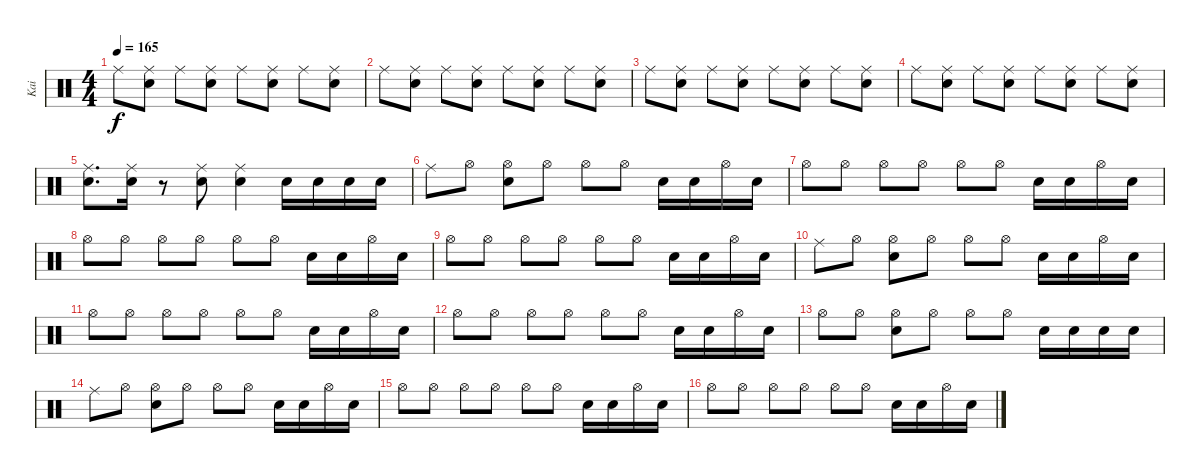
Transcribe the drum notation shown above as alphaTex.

\track ("Kai" "Kai") {instrument percussion}
\staff {score}
\articulation defaults
\ts (4 4)
\tempo 165
\clef neutral
\ks c "Ride (middle)".8{dy f}
("Ride (middle)" "Snare (hit) 2").8 "Ride (middle)".8 ("Ride (middle)" "Snare (hit) 2").8 "Ride (middle)".8 ("Ride (middle)" "Snare (hit) 2").8 "Ride (middle)".8 ("Ride (middle)" "Snare (hit) 2").8 |
"Ride (middle)".8 ("Ride (middle)" "Snare (hit) 2").8 "Ride (middle)".8 ("Ride (middle)" "Snare (hit) 2").8 "Ride (middle)".8 ("Ride (middle)" "Snare (hit) 2").8 "Ride (middle)".8 ("Ride (middle)" "Snare (hit) 2").8 |
"Ride (middle)".8 ("Ride (middle)" "Snare (hit) 2").8 "Ride (middle)".8 ("Ride (middle)" "Snare (hit) 2").8 "Ride (middle)".8 ("Ride (middle)" "Snare (hit) 2").8 "Ride (middle)".8 ("Ride (middle)" "Snare (hit) 2").8 |
"Ride (middle)".8 ("Ride (middle)" "Snare (hit) 2").8 "Ride (middle)".8 ("Ride (middle)" "Snare (hit) 2").8 "Ride (middle)".8 ("Ride (middle)" "Snare (hit) 2").8 "Ride (middle)".8 ("Ride (middle)" "Snare (hit) 2").8 |
("Ride (middle)" "Snare (hit) 2").8{d} ("Ride (middle)" "Snare (hit) 2").16 r.8 ("Ride (middle)" "Snare (hit) 2").8 ("Ride (middle)" "Snare (hit) 2").4 "Snare (hit) 2".16 "Snare (hit) 2".16 "Snare (hit) 2".16 "Snare (hit) 2".16 |
"Ride (middle)".8 "Hi-Hat (open)".8 ("Hi-Hat (open)" "Snare (hit) 2").8 "Hi-Hat (open)".8 "Hi-Hat (open)".8 "Hi-Hat (open)".8 "Snare (hit) 2".16 "Snare (hit) 2".16 "Hi-Hat (open)".16 "Snare (hit) 2".16 |
"Hi-Hat (open)".8 "Hi-Hat (open)".8 "Hi-Hat (open)".8 "Hi-Hat (open)".8 "Hi-Hat (open)".8 "Hi-Hat (open)".8 "Snare (hit) 2".16 "Snare (hit) 2".16 "Hi-Hat (open)".16 "Snare (hit) 2".16 |
"Hi-Hat (open)".8 "Hi-Hat (open)".8 "Hi-Hat (open)".8 "Hi-Hat (open)".8 "Hi-Hat (open)".8 "Hi-Hat (open)".8 "Snare (hit) 2".16 "Snare (hit) 2".16 "Hi-Hat (open)".16 "Snare (hit) 2".16 |
"Hi-Hat (open)".8 "Hi-Hat (open)".8 "Hi-Hat (open)".8 "Hi-Hat (open)".8 "Hi-Hat (open)".8 "Hi-Hat (open)".8 "Snare (hit) 2".16 "Snare (hit) 2".16 "Hi-Hat (open)".16 "Snare (hit) 2".16 |
"Ride (middle)".8 "Hi-Hat (open)".8 ("Hi-Hat (open)" "Snare (hit) 2").8 "Hi-Hat (open)".8 "Hi-Hat (open)".8 "Hi-Hat (open)".8 "Snare (hit) 2".16 "Snare (hit) 2".16 "Hi-Hat (open)".16 "Snare (hit) 2".16 |
"Hi-Hat (open)".8 "Hi-Hat (open)".8 "Hi-Hat (open)".8 "Hi-Hat (open)".8 "Hi-Hat (open)".8 "Hi-Hat (open)".8 "Snare (hit) 2".16 "Snare (hit) 2".16 "Hi-Hat (open)".16 "Snare (hit) 2".16 |
"Hi-Hat (open)".8 "Hi-Hat (open)".8 "Hi-Hat (open)".8 "Hi-Hat (open)".8 "Hi-Hat (open)".8 "Hi-Hat (open)".8 "Snare (hit) 2".16 "Snare (hit) 2".16 "Hi-Hat (open)".16 "Snare (hit) 2".16 |
"Hi-Hat (open)".8 "Hi-Hat (open)".8 ("Hi-Hat (open)" "Snare (hit) 2").8 "Hi-Hat (open)".8 "Hi-Hat (open)".8 "Hi-Hat (open)".8 "Snare (hit) 2".16 "Snare (hit) 2".16 "Snare (hit) 2".16 "Snare (hit) 2".16 |
"Ride (middle)".8 "Hi-Hat (open)".8 ("Hi-Hat (open)" "Snare (hit) 2").8 "Hi-Hat (open)".8 "Hi-Hat (open)".8 "Hi-Hat (open)".8 "Snare (hit) 2".16 "Snare (hit) 2".16 "Hi-Hat (open)".16 "Snare (hit) 2".16 |
"Hi-Hat (open)".8 "Hi-Hat (open)".8 "Hi-Hat (open)".8 "Hi-Hat (open)".8 "Hi-Hat (open)".8 "Hi-Hat (open)".8 "Snare (hit) 2".16 "Snare (hit) 2".16 "Hi-Hat (open)".16 "Snare (hit) 2".16 |
"Hi-Hat (open)".8 "Hi-Hat (open)".8 "Hi-Hat (open)".8 "Hi-Hat (open)".8 "Hi-Hat (open)".8 "Hi-Hat (open)".8 "Snare (hit) 2".16 "Snare (hit) 2".16 "Hi-Hat (open)".16 "Snare (hit) 2".16
